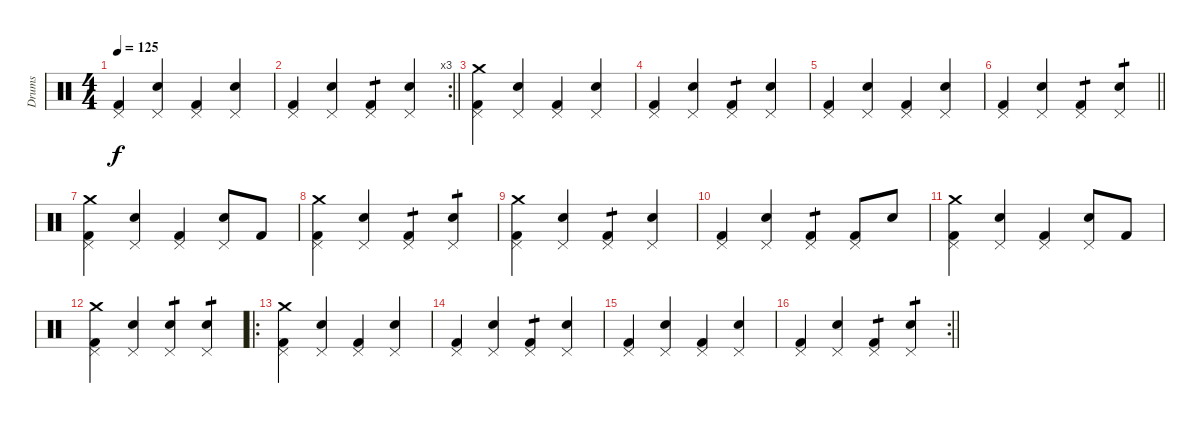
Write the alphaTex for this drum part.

\track ("Drums" "Drums") {instrument percussion}
\staff {score}
\articulation defaults
\ts (4 4)
\tempo 125
\clef neutral
\ks c
("Kick (hit) 2" "Pedal Hi-Hat (hit)").4{dy f} ("Snare (hit) 2" "Pedal Hi-Hat (hit)").4 ("Kick (hit) 2" "Pedal Hi-Hat (hit)").4 ("Snare (hit) 2" "Pedal Hi-Hat (hit)").4 |
\rc 3
\barLineRight lightlight
("Kick (hit) 2" "Pedal Hi-Hat (hit)").4 ("Snare (hit) 2" "Pedal Hi-Hat (hit)").4 ("Kick (hit) 2" "Pedal Hi-Hat (hit)").4{tp 1} ("Snare (hit) 2" "Pedal Hi-Hat (hit)").4 |
("Kick (hit) 2" "Crash medium (hit)" "Pedal Hi-Hat (hit)").4 ("Snare (hit) 2" "Pedal Hi-Hat (hit)").4 ("Kick (hit) 2" "Pedal Hi-Hat (hit)").4 ("Snare (hit) 2" "Pedal Hi-Hat (hit)").4 |
("Kick (hit) 2" "Pedal Hi-Hat (hit)").4 ("Snare (hit) 2" "Pedal Hi-Hat (hit)").4 ("Kick (hit) 2" "Pedal Hi-Hat (hit)").4{tp 1} ("Snare (hit) 2" "Pedal Hi-Hat (hit)").4 |
("Kick (hit) 2" "Pedal Hi-Hat (hit)").4 ("Snare (hit) 2" "Pedal Hi-Hat (hit)").4 ("Kick (hit) 2" "Pedal Hi-Hat (hit)").4 ("Snare (hit) 2" "Pedal Hi-Hat (hit)").4 |
\barLineRight lightlight
("Kick (hit) 2" "Pedal Hi-Hat (hit)").4 ("Snare (hit) 2" "Pedal Hi-Hat (hit)").4 ("Kick (hit) 2" "Pedal Hi-Hat (hit)").4{tp 1} ("Snare (hit) 2" "Pedal Hi-Hat (hit)").4{tp 1} |
("Kick (hit) 2" "Crash medium (hit)" "Pedal Hi-Hat (hit)").4 ("Snare (hit) 2" "Pedal Hi-Hat (hit)").4 ("Kick (hit) 2" "Pedal Hi-Hat (hit)").4 ("Snare (hit) 2" "Pedal Hi-Hat (hit)").8 "Kick (hit) 2".8 |
("Kick (hit) 2" "Crash medium (hit)" "Pedal Hi-Hat (hit)").4 ("Snare (hit) 2" "Pedal Hi-Hat (hit)").4 ("Kick (hit) 2" "Pedal Hi-Hat (hit)").4{tp 1} ("Snare (hit) 2" "Pedal Hi-Hat (hit)").4{tp 1} |
("Kick (hit) 2" "Crash medium (hit)" "Pedal Hi-Hat (hit)").4 ("Snare (hit) 2" "Pedal Hi-Hat (hit)").4 ("Kick (hit) 2" "Pedal Hi-Hat (hit)").4{tp 1} ("Snare (hit) 2" "Pedal Hi-Hat (hit)").4 |
("Kick (hit) 2" "Pedal Hi-Hat (hit)").4 ("Snare (hit) 2" "Pedal Hi-Hat (hit)").4 ("Kick (hit) 2" "Pedal Hi-Hat (hit)").4{tp 1} ("Kick (hit) 2" "Pedal Hi-Hat (hit)").8 "Snare (hit) 2".8 |
("Kick (hit) 2" "Crash medium (hit)" "Pedal Hi-Hat (hit)").4 ("Snare (hit) 2" "Pedal Hi-Hat (hit)").4 ("Kick (hit) 2" "Pedal Hi-Hat (hit)").4 ("Snare (hit) 2" "Pedal Hi-Hat (hit)").8 "Kick (hit) 2".8 |
("Kick (hit) 2" "Crash medium (hit)" "Pedal Hi-Hat (hit)").4 ("Snare (hit) 2" "Pedal Hi-Hat (hit)").4 ("Snare (hit) 2" "Pedal Hi-Hat (hit)").4{tp 1} ("Snare (hit) 2" "Pedal Hi-Hat (hit)").4{tp 1} |
\ro
("Kick (hit) 2" "Crash medium (hit)" "Pedal Hi-Hat (hit)").4 ("Snare (hit) 2" "Pedal Hi-Hat (hit)").4 ("Kick (hit) 2" "Pedal Hi-Hat (hit)").4 ("Snare (hit) 2" "Pedal Hi-Hat (hit)").4 |
("Kick (hit) 2" "Pedal Hi-Hat (hit)").4 ("Snare (hit) 2" "Pedal Hi-Hat (hit)").4 ("Kick (hit) 2" "Pedal Hi-Hat (hit)").4{tp 1} ("Snare (hit) 2" "Pedal Hi-Hat (hit)").4 |
("Kick (hit) 2" "Pedal Hi-Hat (hit)").4 ("Snare (hit) 2" "Pedal Hi-Hat (hit)").4 ("Kick (hit) 2" "Pedal Hi-Hat (hit)").4 ("Snare (hit) 2" "Pedal Hi-Hat (hit)").4 |
\rc 2
\barLineRight lightlight
("Kick (hit) 2" "Pedal Hi-Hat (hit)").4 ("Snare (hit) 2" "Pedal Hi-Hat (hit)").4 ("Kick (hit) 2" "Pedal Hi-Hat (hit)").4{tp 1} ("Snare (hit) 2" "Pedal Hi-Hat (hit)").4{tp 1}
